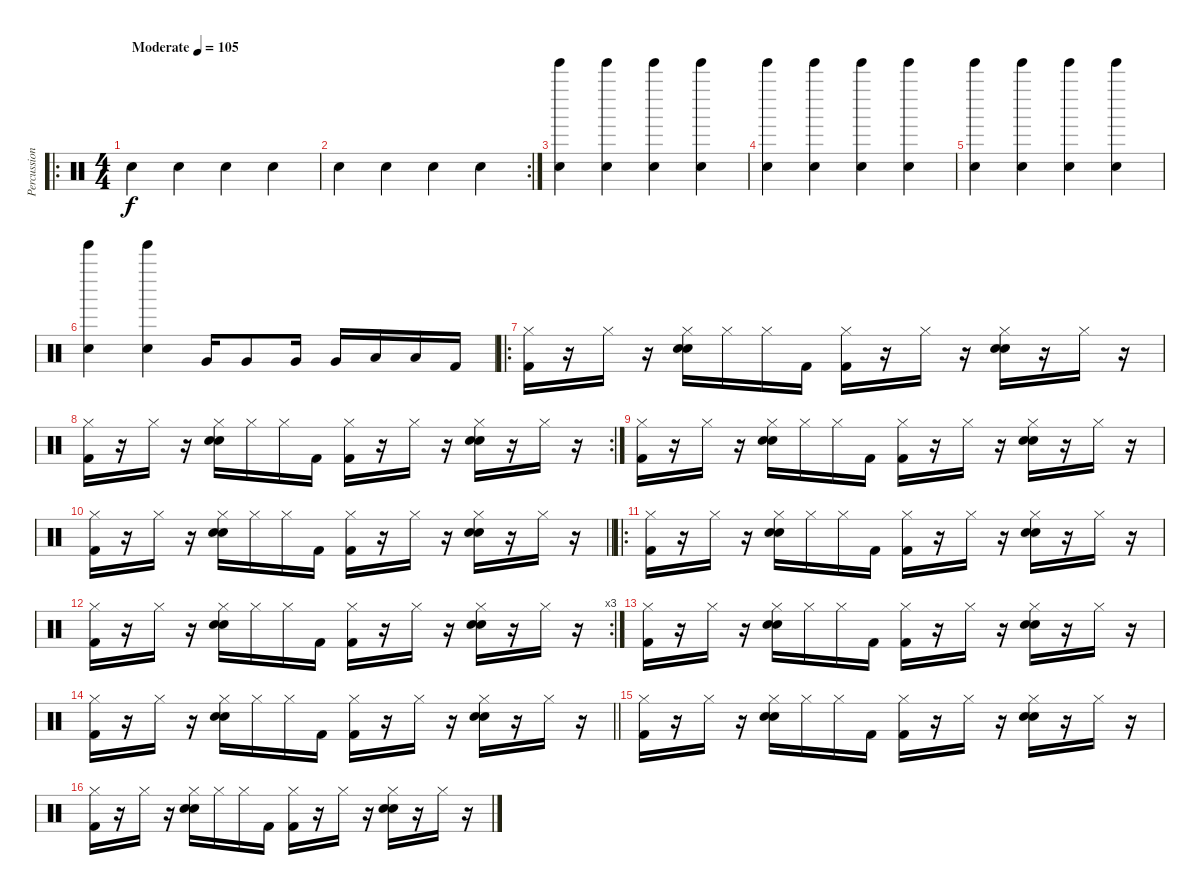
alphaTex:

\track ("Percussion" "Percussion") {instrument percussion}
\staff {score}
\articulation defaults
\ro
\ts (4 4)
\tempo (105 "Moderate")
\clef neutral
\ks c "Snare (hit) 2".4{dy f} "Snare (hit) 2".4 "Snare (hit) 2".4 "Snare (hit) 2".4
|
\rc 2 "Snare (hit) 2".4 "Snare (hit) 2".4 "Snare (hit) 2".4 "Snare (hit) 2".4
|
("Snare (hit) 2" "Tinkle Bell (hit)").4 ("Snare (hit) 2" "Tinkle Bell (hit)").4 ("Snare (hit) 2" "Tinkle Bell (hit)").4 ("Snare (hit) 2" "Tinkle Bell (hit)").4 |
("Snare (hit) 2" "Tinkle Bell (hit)").4 ("Snare (hit) 2" "Tinkle Bell (hit)").4 ("Snare (hit) 2" "Tinkle Bell (hit)").4 ("Snare (hit) 2" "Tinkle Bell (hit)").4 |
("Snare (hit) 2" "Tinkle Bell (hit)").4 ("Snare (hit) 2" "Tinkle Bell (hit)").4 ("Snare (hit) 2" "Tinkle Bell (hit)").4 ("Snare (hit) 2" "Tinkle Bell (hit)").4 |
("Snare (hit) 2" "Tinkle Bell (hit)").4 ("Snare (hit) 2" "Tinkle Bell (hit)").4 "Very Low Tom (hit)".16 "Very Low Tom (hit)".8 "Very Low Tom (hit)".16 "Very Low Tom (hit)".16 "Low Tom (hit)".16 "Low Tom (hit)".16 "Kick (hit) 2".16 |
\ro
("Hi-Hat (closed)" "Kick (hit) 2").16 r.16 "Hi-Hat (closed)".16 r.16 ("Hi-Hat (closed)" "Snare (hit) 2" "Hand Clap (hit)").16 "Hi-Hat (closed)".16 "Hi-Hat (closed)".16 "Kick (hit) 2".16 ("Hi-Hat (closed)" "Kick (hit) 2").16 r.16 "Hi-Hat (closed)".16 r.16 ("Hi-Hat (closed)" "Snare (hit) 2" "Hand Clap (hit)").16 r.16 "Hi-Hat (closed)".16 r.16 |
\rc 2
("Hi-Hat (closed)" "Kick (hit) 2").16 r.16 "Hi-Hat (closed)".16 r.16 ("Hi-Hat (closed)" "Snare (hit) 2" "Hand Clap (hit)").16 "Hi-Hat (closed)".16 "Hi-Hat (closed)".16 "Kick (hit) 2".16 ("Hi-Hat (closed)" "Kick (hit) 2").16 r.16 "Hi-Hat (closed)".16 r.16 ("Hi-Hat (closed)" "Snare (hit) 2" "Hand Clap (hit)").16 r.16 "Hi-Hat (closed)".16 r.16 |
("Hi-Hat (closed)" "Kick (hit) 2").16 r.16 "Hi-Hat (closed)".16 r.16 ("Hi-Hat (closed)" "Snare (hit) 2" "Hand Clap (hit)").16 "Hi-Hat (closed)".16 "Hi-Hat (closed)".16 "Kick (hit) 2".16 ("Hi-Hat (closed)" "Kick (hit) 2").16 r.16 "Hi-Hat (closed)".16 r.16 ("Hi-Hat (closed)" "Snare (hit) 2" "Hand Clap (hit)").16 r.16 "Hi-Hat (closed)".16 r.16 |
\barLineRight lightlight
("Hi-Hat (closed)" "Kick (hit) 2").16 r.16 "Hi-Hat (closed)".16 r.16 ("Hi-Hat (closed)" "Snare (hit) 2" "Hand Clap (hit)").16 "Hi-Hat (closed)".16 "Hi-Hat (closed)".16 "Kick (hit) 2".16 ("Hi-Hat (closed)" "Kick (hit) 2").16 r.16 "Hi-Hat (closed)".16 r.16 ("Hi-Hat (closed)" "Snare (hit) 2" "Hand Clap (hit)").16 r.16 "Hi-Hat (closed)".16 r.16 |
\ro
("Hi-Hat (closed)" "Kick (hit) 2").16 r.16 "Hi-Hat (closed)".16 r.16 ("Hi-Hat (closed)" "Snare (hit) 2" "Hand Clap (hit)").16 "Hi-Hat (closed)".16 "Hi-Hat (closed)".16 "Kick (hit) 2".16 ("Hi-Hat (closed)" "Kick (hit) 2").16 r.16 "Hi-Hat (closed)".16 r.16 ("Hi-Hat (closed)" "Snare (hit) 2" "Hand Clap (hit)").16 r.16 "Hi-Hat (closed)".16 r.16 |
\rc 3
("Hi-Hat (closed)" "Kick (hit) 2").16 r.16 "Hi-Hat (closed)".16 r.16 ("Hi-Hat (closed)" "Snare (hit) 2" "Hand Clap (hit)").16 "Hi-Hat (closed)".16 "Hi-Hat (closed)".16 "Kick (hit) 2".16 ("Hi-Hat (closed)" "Kick (hit) 2").16 r.16 "Hi-Hat (closed)".16 r.16 ("Hi-Hat (closed)" "Snare (hit) 2" "Hand Clap (hit)").16 r.16 "Hi-Hat (closed)".16 r.16 |
("Hi-Hat (closed)" "Kick (hit) 2").16 r.16 "Hi-Hat (closed)".16 r.16 ("Hi-Hat (closed)" "Snare (hit) 2" "Hand Clap (hit)").16 "Hi-Hat (closed)".16 "Hi-Hat (closed)".16 "Kick (hit) 2".16 ("Hi-Hat (closed)" "Kick (hit) 2").16 r.16 "Hi-Hat (closed)".16 r.16 ("Hi-Hat (closed)" "Snare (hit) 2" "Hand Clap (hit)").16 r.16 "Hi-Hat (closed)".16 r.16 |
\barLineRight lightlight
("Hi-Hat (closed)" "Kick (hit) 2").16 r.16 "Hi-Hat (closed)".16 r.16 ("Hi-Hat (closed)" "Snare (hit) 2" "Hand Clap (hit)").16 "Hi-Hat (closed)".16 "Hi-Hat (closed)".16 "Kick (hit) 2".16 ("Hi-Hat (closed)" "Kick (hit) 2").16 r.16 "Hi-Hat (closed)".16 r.16 ("Hi-Hat (closed)" "Snare (hit) 2" "Hand Clap (hit)").16 r.16 "Hi-Hat (closed)".16 r.16 |
("Hi-Hat (closed)" "Kick (hit) 2").16 r.16 "Hi-Hat (closed)".16 r.16 ("Hi-Hat (closed)" "Snare (hit) 2" "Hand Clap (hit)").16 "Hi-Hat (closed)".16 "Hi-Hat (closed)".16 "Kick (hit) 2".16 ("Hi-Hat (closed)" "Kick (hit) 2").16 r.16 "Hi-Hat (closed)".16 r.16 ("Hi-Hat (closed)" "Snare (hit) 2" "Hand Clap (hit)").16 r.16 "Hi-Hat (closed)".16 r.16 |
("Hi-Hat (closed)" "Kick (hit) 2").16 r.16 "Hi-Hat (closed)".16 r.16 ("Hi-Hat (closed)" "Snare (hit) 2" "Hand Clap (hit)").16 "Hi-Hat (closed)".16 "Hi-Hat (closed)".16 "Kick (hit) 2".16 ("Hi-Hat (closed)" "Kick (hit) 2").16 r.16 "Hi-Hat (closed)".16 r.16 ("Hi-Hat (closed)" "Snare (hit) 2" "Hand Clap (hit)").16 r.16 "Hi-Hat (closed)".16 r.16
